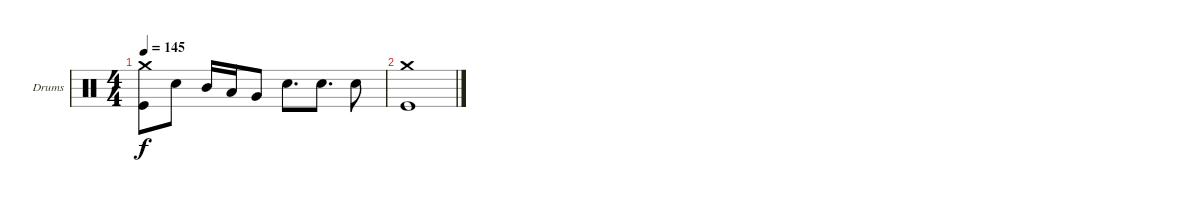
\defaultSystemsLayout 4
\bracketExtendMode groupsimilarinstruments
\firstSystemTrackNameOrientation horizontal
\otherSystemsTrackNameOrientation horizontal
\track ("Drumkit" "Drums") {instrument percussion}
\staff {score}
\articulation defaults
\ts (4 4)
\tempo 145
\clef neutral
\ks c
("Kick (hit)" "Crash medium (hit)").8{dy f} "Snare (hit) 2".8 "Mid Tom (hit)".16 "Low Tom (hit)".16 "Very Low Tom (hit)".8 "Snare (hit) 2".8{d} "Snare (hit) 2".8{d} "Snare (hit) 2".8 |
("Kick (hit)" "Crash medium (hit)").1
